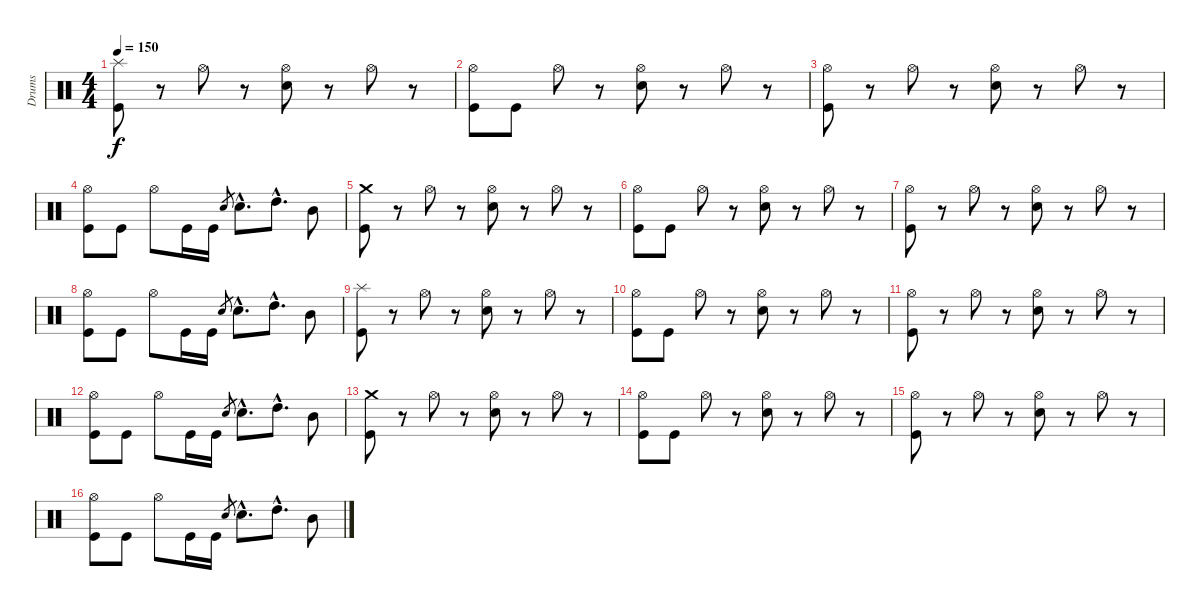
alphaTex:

\track ("Drums" "Drums") {instrument percussion}
\staff {score}
\articulation defaults
\ts (4 4)
\tempo 150
\clef neutral
\ks c
("Splash (hit)" "Kick (hit)").8{dy f} r.8 "Hi-Hat (open)".8 r.8 ("Hi-Hat (open)" "Electric Snare (hit)").8 r.8 "Hi-Hat (open)".8 r.8 |
("Hi-Hat (open)" "Kick (hit)").8 "Kick (hit)".8 "Hi-Hat (open)".8 r.8 ("Hi-Hat (open)" "Electric Snare (hit)").8 r.8 "Hi-Hat (open)".8 r.8 |
("Hi-Hat (open)" "Kick (hit)").8 r.8 "Hi-Hat (open)".8 r.8 ("Hi-Hat (open)" "Electric Snare (hit)").8 r.8 "Hi-Hat (open)".8 r.8 |
("Hi-Hat (open)" "Kick (hit)").8 "Kick (hit)".8 "Hi-Hat (open)".8 "Kick (hit)".16 "Kick (hit)".16 "Snare (hit) 2".8{gr} "Snare (hit) 2"{hac}.8{d} "High Tom (hit)"{hac}.8{d} "Mid Tom (hit)".8 |
("Crash medium (hit)" "Kick (hit)").8 r.8 "Hi-Hat (open)".8 r.8 ("Hi-Hat (open)" "Electric Snare (hit)").8 r.8 "Hi-Hat (open)".8 r.8 |
("Hi-Hat (open)" "Kick (hit)").8 "Kick (hit)".8 "Hi-Hat (open)".8 r.8 ("Hi-Hat (open)" "Electric Snare (hit)").8 r.8 "Hi-Hat (open)".8 r.8 |
("Hi-Hat (open)" "Kick (hit)").8 r.8 "Hi-Hat (open)".8 r.8 ("Hi-Hat (open)" "Electric Snare (hit)").8 r.8 "Hi-Hat (open)".8 r.8 |
("Hi-Hat (open)" "Kick (hit)").8 "Kick (hit)".8 "Hi-Hat (open)".8 "Kick (hit)".16 "Kick (hit)".16 "Snare (hit) 2".8{gr} "Snare (hit) 2"{hac}.8{d} "High Tom (hit)"{hac}.8{d} "Mid Tom (hit)".8 |
("Splash (hit)" "Kick (hit)").8 r.8 "Hi-Hat (open)".8 r.8 ("Hi-Hat (open)" "Electric Snare (hit)").8 r.8 "Hi-Hat (open)".8 r.8 |
("Hi-Hat (open)" "Kick (hit)").8 "Kick (hit)".8 "Hi-Hat (open)".8 r.8 ("Hi-Hat (open)" "Electric Snare (hit)").8 r.8 "Hi-Hat (open)".8 r.8 |
("Hi-Hat (open)" "Kick (hit)").8 r.8 "Hi-Hat (open)".8 r.8 ("Hi-Hat (open)" "Electric Snare (hit)").8 r.8 "Hi-Hat (open)".8 r.8 |
("Hi-Hat (open)" "Kick (hit)").8 "Kick (hit)".8 "Hi-Hat (open)".8 "Kick (hit)".16 "Kick (hit)".16 "Snare (hit) 2".8{gr} "Snare (hit) 2"{hac}.8{d} "High Tom (hit)"{hac}.8{d} "Mid Tom (hit)".8 |
("Crash medium (hit)" "Kick (hit)").8 r.8 "Hi-Hat (open)".8 r.8 ("Hi-Hat (open)" "Electric Snare (hit)").8 r.8 "Hi-Hat (open)".8 r.8 |
("Hi-Hat (open)" "Kick (hit)").8 "Kick (hit)".8 "Hi-Hat (open)".8 r.8 ("Hi-Hat (open)" "Electric Snare (hit)").8 r.8 "Hi-Hat (open)".8 r.8 |
("Hi-Hat (open)" "Kick (hit)").8 r.8 "Hi-Hat (open)".8 r.8 ("Hi-Hat (open)" "Electric Snare (hit)").8 r.8 "Hi-Hat (open)".8 r.8 |
("Hi-Hat (open)" "Kick (hit)").8 "Kick (hit)".8 "Hi-Hat (open)".8 "Kick (hit)".16 "Kick (hit)".16 "Snare (hit) 2".8{gr} "Snare (hit) 2"{hac}.8{d} "High Tom (hit)"{hac}.8{d} "Mid Tom (hit)".8
